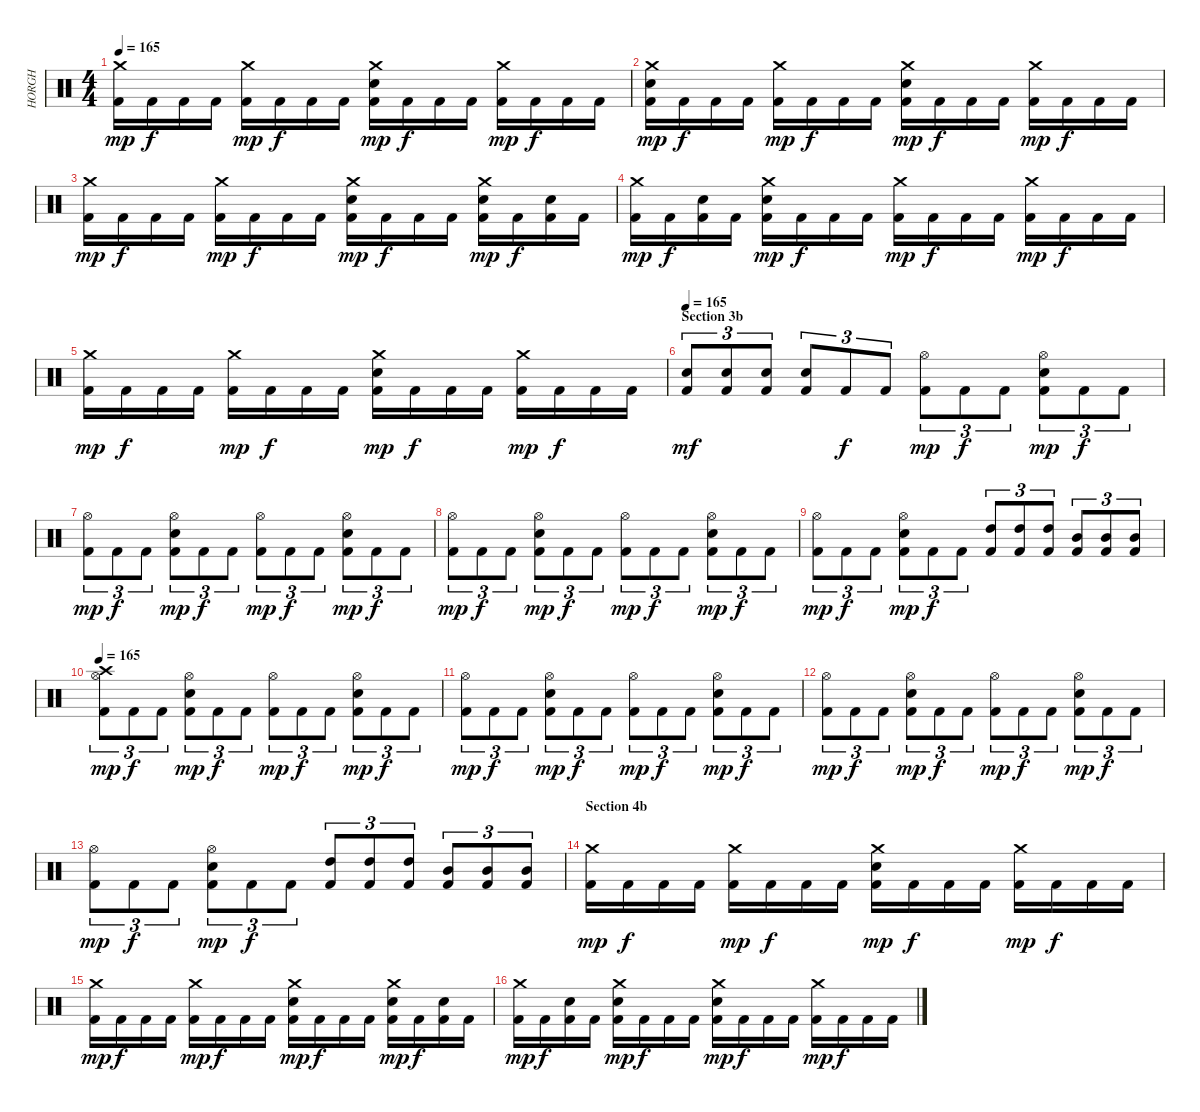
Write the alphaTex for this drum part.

\track ("HORGH" "HORGH") {instrument percussion}
\staff {score}
\articulation defaults
\ts (4 4)
\tempo 165
\clef neutral
\ks c
("Crash medium (hit)" "Kick (hit) 2").16{dy mp} "Kick (hit) 2".16{dy f} "Kick (hit) 2".16 "Kick (hit) 2".16 ("Crash medium (hit)" "Kick (hit) 2").16{dy mp} "Kick (hit) 2".16{dy f} "Kick (hit) 2".16 "Kick (hit) 2".16 ("Crash medium (hit)" "Electric Snare (hit)" "Kick (hit) 2").16{dy mp} "Kick (hit) 2".16{dy f} "Kick (hit) 2".16 "Kick (hit) 2".16 ("Crash medium (hit)" "Kick (hit) 2").16{dy mp} "Kick (hit) 2".16{dy f} "Kick (hit) 2".16 "Kick (hit) 2".16 |
("Crash medium (hit)" "Electric Snare (hit)" "Kick (hit) 2").16{dy mp} "Kick (hit) 2".16{dy f} "Kick (hit) 2".16 "Kick (hit) 2".16 ("Crash medium (hit)" "Kick (hit) 2").16{dy mp} "Kick (hit) 2".16{dy f} "Kick (hit) 2".16 "Kick (hit) 2".16 ("Crash medium (hit)" "Electric Snare (hit)" "Kick (hit) 2").16{dy mp} "Kick (hit) 2".16{dy f} "Kick (hit) 2".16 "Kick (hit) 2".16 ("Crash medium (hit)" "Kick (hit) 2").16{dy mp} "Kick (hit) 2".16{dy f} "Kick (hit) 2".16 "Kick (hit) 2".16 |
("Crash medium (hit)" "Kick (hit) 2").16{dy mp} "Kick (hit) 2".16{dy f} "Kick (hit) 2".16 "Kick (hit) 2".16 ("Crash medium (hit)" "Kick (hit) 2").16{dy mp} "Kick (hit) 2".16{dy f} "Kick (hit) 2".16 "Kick (hit) 2".16 ("Crash medium (hit)" "Electric Snare (hit)" "Kick (hit) 2").16{dy mp} "Kick (hit) 2".16{dy f} "Kick (hit) 2".16 "Kick (hit) 2".16 ("Crash medium (hit)" "Electric Snare (hit)" "Kick (hit) 2").16{dy mp} "Kick (hit) 2".16{dy f} ("Electric Snare (hit)" "Kick (hit) 2").16 "Kick (hit) 2".16 |
("Crash medium (hit)" "Kick (hit) 2").16{dy mp} "Kick (hit) 2".16{dy f} ("Electric Snare (hit)" "Kick (hit) 2").16 "Kick (hit) 2".16 ("Crash medium (hit)" "Electric Snare (hit)" "Kick (hit) 2").16{dy mp} "Kick (hit) 2".16{dy f} "Kick (hit) 2".16 "Kick (hit) 2".16 ("Crash medium (hit)" "Kick (hit) 2").16{dy mp} "Kick (hit) 2".16{dy f} "Kick (hit) 2".16 "Kick (hit) 2".16 ("Crash medium (hit)" "Kick (hit) 2").16{dy mp} "Kick (hit) 2".16{dy f} "Kick (hit) 2".16 "Kick (hit) 2".16 |
("Crash medium (hit)" "Kick (hit) 2").16{dy mp} "Kick (hit) 2".16{dy f} "Kick (hit) 2".16 "Kick (hit) 2".16 ("Crash medium (hit)" "Kick (hit) 2").16{dy mp} "Kick (hit) 2".16{dy f} "Kick (hit) 2".16 "Kick (hit) 2".16 ("Crash medium (hit)" "Electric Snare (hit)" "Kick (hit) 2").16{dy mp} "Kick (hit) 2".16{dy f} "Kick (hit) 2".16 "Kick (hit) 2".16 ("Crash medium (hit)" "Kick (hit) 2").16{dy mp} "Kick (hit) 2".16{dy f} "Kick (hit) 2".16 "Kick (hit) 2".16 |
\section ("" "Section 3b")
\tempo 165
("Electric Snare (hit)" "Kick (hit) 2").8{tu (3 2) dy mf} ("Electric Snare (hit)" "Kick (hit) 2").8{tu (3 2)} ("Electric Snare (hit)" "Kick (hit) 2").8{tu (3 2)} ("Electric Snare (hit)" "Kick (hit) 2").8{tu (3 2)} "Kick (hit) 2".8{tu (3 2) dy f} "Kick (hit) 2".8{tu (3 2)} ("Hi-Hat (open)" "Kick (hit) 2").8{tu (3 2) dy mp} "Kick (hit) 2".8{tu (3 2) dy f} "Kick (hit) 2".8{tu (3 2)} ("Hi-Hat (open)" "Electric Snare (hit)" "Kick (hit) 2").8{tu (3 2) dy mp} "Kick (hit) 2".8{tu (3 2) dy f} "Kick (hit) 2".8{tu (3 2)} |
("Hi-Hat (open)" "Kick (hit) 2").8{tu (3 2) dy mp} "Kick (hit) 2".8{tu (3 2) dy f} "Kick (hit) 2".8{tu (3 2)} ("Hi-Hat (open)" "Electric Snare (hit)" "Kick (hit) 2").8{tu (3 2) dy mp} "Kick (hit) 2".8{tu (3 2) dy f} "Kick (hit) 2".8{tu (3 2)} ("Hi-Hat (open)" "Kick (hit) 2").8{tu (3 2) dy mp} "Kick (hit) 2".8{tu (3 2) dy f} "Kick (hit) 2".8{tu (3 2)} ("Hi-Hat (open)" "Electric Snare (hit)" "Kick (hit) 2").8{tu (3 2) dy mp} "Kick (hit) 2".8{tu (3 2) dy f} "Kick (hit) 2".8{tu (3 2)} |
("Hi-Hat (open)" "Kick (hit) 2").8{tu (3 2) dy mp} "Kick (hit) 2".8{tu (3 2) dy f} "Kick (hit) 2".8{tu (3 2)} ("Hi-Hat (open)" "Electric Snare (hit)" "Kick (hit) 2").8{tu (3 2) dy mp} "Kick (hit) 2".8{tu (3 2) dy f} "Kick (hit) 2".8{tu (3 2)} ("Hi-Hat (open)" "Kick (hit) 2").8{tu (3 2) dy mp} "Kick (hit) 2".8{tu (3 2) dy f} "Kick (hit) 2".8{tu (3 2)} ("Hi-Hat (open)" "Electric Snare (hit)" "Kick (hit) 2").8{tu (3 2) dy mp} "Kick (hit) 2".8{tu (3 2) dy f} "Kick (hit) 2".8{tu (3 2)} |
("Hi-Hat (open)" "Kick (hit) 2").8{tu (3 2) dy mp} "Kick (hit) 2".8{tu (3 2) dy f} "Kick (hit) 2".8{tu (3 2)} ("Hi-Hat (open)" "Electric Snare (hit)" "Kick (hit) 2").8{tu (3 2) dy mp} "Kick (hit) 2".8{tu (3 2) dy f} "Kick (hit) 2".8{tu (3 2)} ("High Tom (hit)" "Kick (hit) 2").8{tu (3 2)} ("High Tom (hit)" "Kick (hit) 2").8{tu (3 2)} ("High Tom (hit)" "Kick (hit) 2").8{tu (3 2)} ("Mid Tom (hit)" "Kick (hit) 2").8{tu (3 2)} ("Mid Tom (hit)" "Kick (hit) 2").8{tu (3 2)} ("Mid Tom (hit)" "Kick (hit) 2").8{tu (3 2)} |
\tempo 165
("Hi-Hat (open)" "Crash high (hit)" "Kick (hit) 2").8{tu (3 2) dy mp} "Kick (hit) 2".8{tu (3 2) dy f} "Kick (hit) 2".8{tu (3 2)} ("Hi-Hat (open)" "Electric Snare (hit)" "Kick (hit) 2").8{tu (3 2) dy mp} "Kick (hit) 2".8{tu (3 2) dy f} "Kick (hit) 2".8{tu (3 2)} ("Hi-Hat (open)" "Kick (hit) 2").8{tu (3 2) dy mp} "Kick (hit) 2".8{tu (3 2) dy f} "Kick (hit) 2".8{tu (3 2)} ("Hi-Hat (open)" "Electric Snare (hit)" "Kick (hit) 2").8{tu (3 2) dy mp} "Kick (hit) 2".8{tu (3 2) dy f} "Kick (hit) 2".8{tu (3 2)} |
("Hi-Hat (open)" "Kick (hit) 2").8{tu (3 2) dy mp} "Kick (hit) 2".8{tu (3 2) dy f} "Kick (hit) 2".8{tu (3 2)} ("Hi-Hat (open)" "Electric Snare (hit)" "Kick (hit) 2").8{tu (3 2) dy mp} "Kick (hit) 2".8{tu (3 2) dy f} "Kick (hit) 2".8{tu (3 2)} ("Hi-Hat (open)" "Kick (hit) 2").8{tu (3 2) dy mp} "Kick (hit) 2".8{tu (3 2) dy f} "Kick (hit) 2".8{tu (3 2)} ("Hi-Hat (open)" "Electric Snare (hit)" "Kick (hit) 2").8{tu (3 2) dy mp} "Kick (hit) 2".8{tu (3 2) dy f} "Kick (hit) 2".8{tu (3 2)} |
("Hi-Hat (open)" "Kick (hit) 2").8{tu (3 2) dy mp} "Kick (hit) 2".8{tu (3 2) dy f} "Kick (hit) 2".8{tu (3 2)} ("Hi-Hat (open)" "Electric Snare (hit)" "Kick (hit) 2").8{tu (3 2) dy mp} "Kick (hit) 2".8{tu (3 2) dy f} "Kick (hit) 2".8{tu (3 2)} ("Hi-Hat (open)" "Kick (hit) 2").8{tu (3 2) dy mp} "Kick (hit) 2".8{tu (3 2) dy f} "Kick (hit) 2".8{tu (3 2)} ("Hi-Hat (open)" "Electric Snare (hit)" "Kick (hit) 2").8{tu (3 2) dy mp} "Kick (hit) 2".8{tu (3 2) dy f} "Kick (hit) 2".8{tu (3 2)} |
("Hi-Hat (open)" "Kick (hit) 2").8{tu (3 2) dy mp} "Kick (hit) 2".8{tu (3 2) dy f} "Kick (hit) 2".8{tu (3 2)} ("Hi-Hat (open)" "Electric Snare (hit)" "Kick (hit) 2").8{tu (3 2) dy mp} "Kick (hit) 2".8{tu (3 2) dy f} "Kick (hit) 2".8{tu (3 2)} ("High Tom (hit)" "Kick (hit) 2").8{tu (3 2)} ("High Tom (hit)" "Kick (hit) 2").8{tu (3 2)} ("High Tom (hit)" "Kick (hit) 2").8{tu (3 2)} ("Mid Tom (hit)" "Kick (hit) 2").8{tu (3 2)} ("Mid Tom (hit)" "Kick (hit) 2").8{tu (3 2)} ("Mid Tom (hit)" "Kick (hit) 2").8{tu (3 2)} |
\section ("" "Section 4b")
("Crash medium (hit)" "Kick (hit) 2").16{dy mp} "Kick (hit) 2".16{dy f} "Kick (hit) 2".16 "Kick (hit) 2".16 ("Crash medium (hit)" "Kick (hit) 2").16{dy mp} "Kick (hit) 2".16{dy f} "Kick (hit) 2".16 "Kick (hit) 2".16 ("Crash medium (hit)" "Electric Snare (hit)" "Kick (hit) 2").16{dy mp} "Kick (hit) 2".16{dy f} "Kick (hit) 2".16 "Kick (hit) 2".16 ("Crash medium (hit)" "Kick (hit) 2").16{dy mp} "Kick (hit) 2".16{dy f} "Kick (hit) 2".16 "Kick (hit) 2".16 |
("Crash medium (hit)" "Kick (hit) 2").16{dy mp} "Kick (hit) 2".16{dy f} "Kick (hit) 2".16 "Kick (hit) 2".16 ("Crash medium (hit)" "Kick (hit) 2").16{dy mp} "Kick (hit) 2".16{dy f} "Kick (hit) 2".16 "Kick (hit) 2".16 ("Crash medium (hit)" "Electric Snare (hit)" "Kick (hit) 2").16{dy mp} "Kick (hit) 2".16{dy f} "Kick (hit) 2".16 "Kick (hit) 2".16 ("Crash medium (hit)" "Electric Snare (hit)" "Kick (hit) 2").16{dy mp} "Kick (hit) 2".16{dy f} ("Electric Snare (hit)" "Kick (hit) 2").16 "Kick (hit) 2".16 |
("Crash medium (hit)" "Kick (hit) 2").16{dy mp} "Kick (hit) 2".16{dy f} ("Electric Snare (hit)" "Kick (hit) 2").16 "Kick (hit) 2".16 ("Crash medium (hit)" "Electric Snare (hit)" "Kick (hit) 2").16{dy mp} "Kick (hit) 2".16{dy f} "Kick (hit) 2".16 "Kick (hit) 2".16 ("Crash medium (hit)" "Electric Snare (hit)" "Kick (hit) 2").16{dy mp} "Kick (hit) 2".16{dy f} "Kick (hit) 2".16 "Kick (hit) 2".16 ("Crash medium (hit)" "Kick (hit) 2").16{dy mp} "Kick (hit) 2".16{dy f} "Kick (hit) 2".16 "Kick (hit) 2".16
